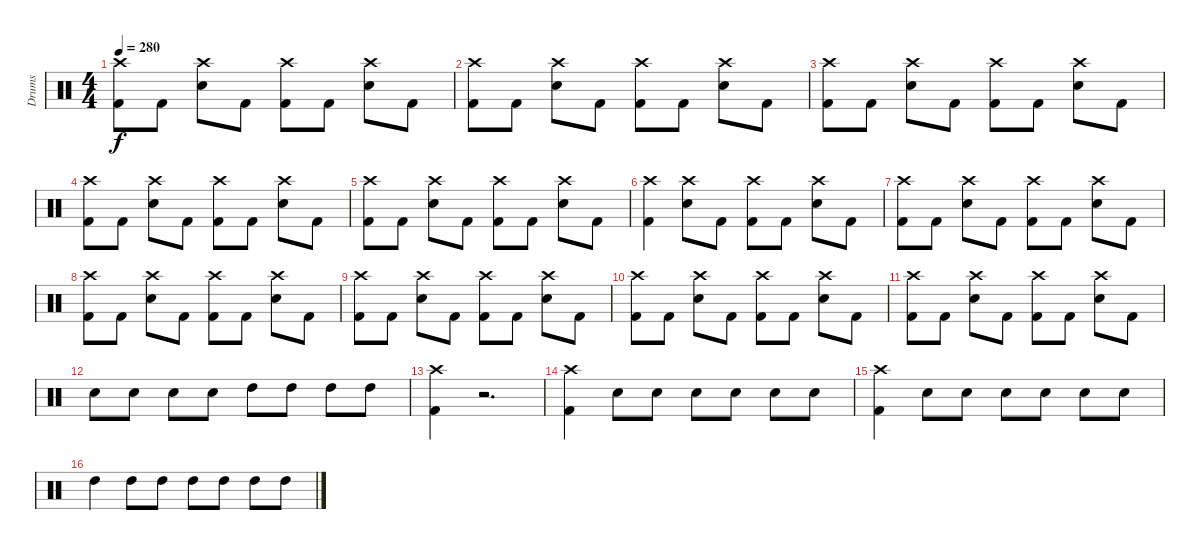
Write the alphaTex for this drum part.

\track ("Drums" "Drums") {instrument percussion}
\staff {score}
\articulation defaults
\ts (4 4)
\tempo 280
\clef neutral
\ks c
("Crash high (hit)" "Kick (hit) 2").8{dy f} "Kick (hit) 2".8 ("Crash high (hit)" "Snare (hit) 2").8 "Kick (hit) 2".8 ("Crash high (hit)" "Kick (hit) 2").8 "Kick (hit) 2".8 ("Crash high (hit)" "Snare (hit) 2").8 "Kick (hit) 2".8 |
("Crash high (hit)" "Kick (hit) 2").8 "Kick (hit) 2".8 ("Crash high (hit)" "Snare (hit) 2").8 "Kick (hit) 2".8 ("Crash high (hit)" "Kick (hit) 2").8 "Kick (hit) 2".8 ("Crash high (hit)" "Snare (hit) 2").8 "Kick (hit) 2".8 |
("Crash high (hit)" "Kick (hit) 2").8 "Kick (hit) 2".8 ("Crash high (hit)" "Snare (hit) 2").8 "Kick (hit) 2".8 ("Crash high (hit)" "Kick (hit) 2").8 "Kick (hit) 2".8 ("Crash high (hit)" "Snare (hit) 2").8 "Kick (hit) 2".8 |
("Crash high (hit)" "Kick (hit) 2").8 "Kick (hit) 2".8 ("Crash high (hit)" "Snare (hit) 2").8 "Kick (hit) 2".8 ("Crash high (hit)" "Kick (hit) 2").8 "Kick (hit) 2".8 ("Crash high (hit)" "Snare (hit) 2").8 "Kick (hit) 2".8 |
("Crash high (hit)" "Kick (hit) 2").8 "Kick (hit) 2".8 ("Crash high (hit)" "Snare (hit) 2").8 "Kick (hit) 2".8 ("Crash high (hit)" "Kick (hit) 2").8 "Kick (hit) 2".8 ("Crash high (hit)" "Snare (hit) 2").8 "Kick (hit) 2".8 |
("Crash high (hit)" "Kick (hit) 2").4 ("Crash high (hit)" "Snare (hit) 2").8 "Kick (hit) 2".8 ("Crash high (hit)" "Kick (hit) 2").8 "Kick (hit) 2".8 ("Crash high (hit)" "Snare (hit) 2").8 "Kick (hit) 2".8 |
("Crash high (hit)" "Kick (hit) 2").8 "Kick (hit) 2".8 ("Crash high (hit)" "Snare (hit) 2").8 "Kick (hit) 2".8 ("Crash high (hit)" "Kick (hit) 2").8 "Kick (hit) 2".8 ("Crash high (hit)" "Snare (hit) 2").8 "Kick (hit) 2".8 |
("Crash high (hit)" "Kick (hit) 2").8 "Kick (hit) 2".8 ("Crash high (hit)" "Snare (hit) 2").8 "Kick (hit) 2".8 ("Crash high (hit)" "Kick (hit) 2").8 "Kick (hit) 2".8 ("Crash high (hit)" "Snare (hit) 2").8 "Kick (hit) 2".8 |
("Crash high (hit)" "Kick (hit) 2").8 "Kick (hit) 2".8 ("Crash high (hit)" "Snare (hit) 2").8 "Kick (hit) 2".8 ("Crash high (hit)" "Kick (hit) 2").8 "Kick (hit) 2".8 ("Crash high (hit)" "Snare (hit) 2").8 "Kick (hit) 2".8 |
("Crash high (hit)" "Kick (hit) 2").8 "Kick (hit) 2".8 ("Crash high (hit)" "Snare (hit) 2").8 "Kick (hit) 2".8 ("Crash high (hit)" "Kick (hit) 2").8 "Kick (hit) 2".8 ("Crash high (hit)" "Snare (hit) 2").8 "Kick (hit) 2".8 |
("Crash high (hit)" "Kick (hit) 2").8 "Kick (hit) 2".8 ("Crash high (hit)" "Snare (hit) 2").8 "Kick (hit) 2".8 ("Crash high (hit)" "Kick (hit) 2").8 "Kick (hit) 2".8 ("Crash high (hit)" "Snare (hit) 2").8 "Kick (hit) 2".8 |
"Snare (hit) 2".8 "Snare (hit) 2".8 "Snare (hit) 2".8 "Snare (hit) 2".8 "High Tom (hit)".8 "High Tom (hit)".8 "High Tom (hit)".8 "High Tom (hit)".8 |
("Kick (hit) 2" "Crash high (hit)").4 r.2{d} |
("Kick (hit) 2" "Crash high (hit)").4 "Snare (hit) 2".8 "Snare (hit) 2".8 "Snare (hit) 2".8 "Snare (hit) 2".8 "Snare (hit) 2".8 "Snare (hit) 2".8 |
("Kick (hit) 2" "Crash high (hit)").4 "Snare (hit) 2".8 "Snare (hit) 2".8 "Snare (hit) 2".8 "Snare (hit) 2".8 "Snare (hit) 2".8 "Snare (hit) 2".8 |
"High Tom (hit)".4 "High Tom (hit)".8 "High Tom (hit)".8 "High Tom (hit)".8 "High Tom (hit)".8 "High Tom (hit)".8 "High Tom (hit)".8
